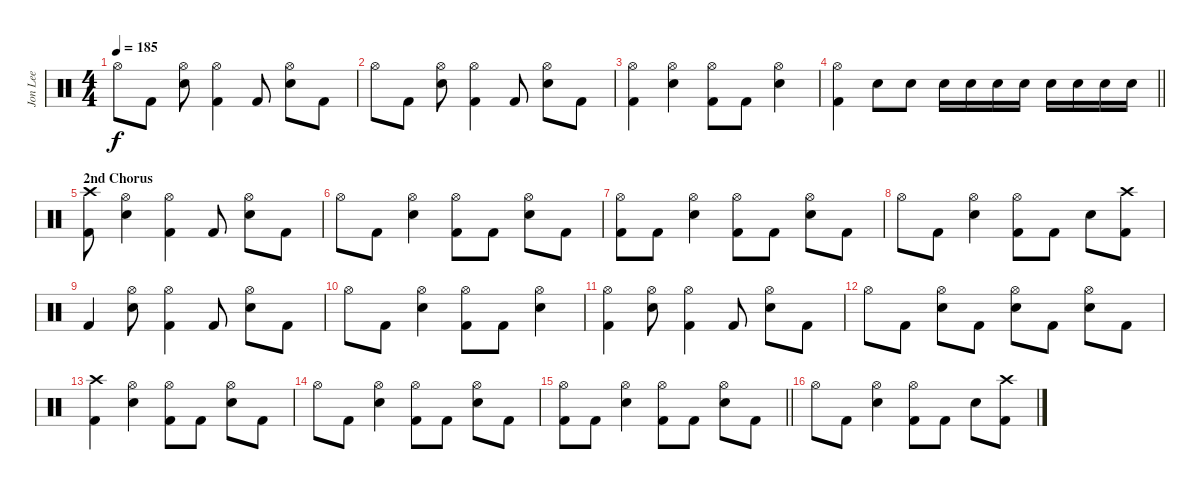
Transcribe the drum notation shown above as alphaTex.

\track ("Jon Lee" "Jon Lee") {instrument percussion bank 10}
\staff {score}
\articulation defaults
\ts (4 4)
\tempo 185
\clef neutral
\ks c "Hi-Hat (open)".8{dy f} "Kick (hit) 2".8
("Snare (hit) 2" "Hi-Hat (open)").8 ("Kick (hit) 2" "Hi-Hat (open)").4 "Kick (hit) 2".8 ("Snare (hit) 2" "Hi-Hat (open)").8 "Kick (hit) 2".8 |
"Hi-Hat (open)".8 "Kick (hit) 2".8 ("Snare (hit) 2" "Hi-Hat (open)").8 ("Kick (hit) 2" "Hi-Hat (open)").4 "Kick (hit) 2".8 ("Snare (hit) 2" "Hi-Hat (open)").8 "Kick (hit) 2".8 |
("Kick (hit) 2" "Hi-Hat (open)").4 ("Snare (hit) 2" "Hi-Hat (open)").4 ("Hi-Hat (open)" "Kick (hit) 2").8 "Kick (hit) 2".8 ("Hi-Hat (open)" "Snare (hit) 2").4 |
\barLineRight lightlight
("Hi-Hat (open)" "Kick (hit) 2").4 "Snare (hit) 2".8 "Snare (hit) 2".8 "Snare (hit) 2".16 "Snare (hit) 2".16 "Snare (hit) 2".16 "Snare (hit) 2".16 "Snare (hit) 2".16 "Snare (hit) 2".16 "Snare (hit) 2".16 "Snare (hit) 2".16 |
\section ("" "2nd Chorus")
("Kick (hit) 2" "Crash high (hit)").8 ("Snare (hit) 2" "Hi-Hat (open)").4 ("Hi-Hat (open)" "Kick (hit) 2").4 "Kick (hit) 2".8 ("Snare (hit) 2" "Hi-Hat (open)").8 "Kick (hit) 2".8 |
"Hi-Hat (open)".8 "Kick (hit) 2".8 ("Snare (hit) 2" "Hi-Hat (open)").4 ("Kick (hit) 2" "Hi-Hat (open)").8 "Kick (hit) 2".8 ("Snare (hit) 2" "Hi-Hat (open)").8 "Kick (hit) 2".8 |
("Hi-Hat (open)" "Kick (hit) 2").8 "Kick (hit) 2".8 ("Snare (hit) 2" "Hi-Hat (open)").4 ("Kick (hit) 2" "Hi-Hat (open)").8 "Kick (hit) 2".8 ("Snare (hit) 2" "Hi-Hat (open)").8 "Kick (hit) 2".8 |
"Hi-Hat (open)".8 "Kick (hit) 2".8 ("Snare (hit) 2" "Hi-Hat (open)").4 ("Kick (hit) 2" "Hi-Hat (open)").8 "Kick (hit) 2".8 "Snare (hit) 2".8 ("Kick (hit) 2" "Crash high (hit)").8 |
"Kick (hit) 2".4 ("Snare (hit) 2" "Hi-Hat (open)").8 ("Kick (hit) 2" "Hi-Hat (open)").4 "Kick (hit) 2".8 ("Snare (hit) 2" "Hi-Hat (open)").8 "Kick (hit) 2".8 |
"Hi-Hat (open)".8 "Kick (hit) 2".8 ("Snare (hit) 2" "Hi-Hat (open)").4 ("Kick (hit) 2" "Hi-Hat (open)").8 "Kick (hit) 2".8 ("Snare (hit) 2" "Hi-Hat (open)").4 |
("Hi-Hat (open)" "Kick (hit) 2").4 ("Snare (hit) 2" "Hi-Hat (open)").8 ("Kick (hit) 2" "Hi-Hat (open)").4 "Kick (hit) 2".8 ("Snare (hit) 2" "Hi-Hat (open)").8 "Kick (hit) 2".8 |
"Hi-Hat (open)".8 "Kick (hit) 2".8 ("Snare (hit) 2" "Hi-Hat (open)").8 "Kick (hit) 2".8 ("Snare (hit) 2" "Hi-Hat (open)").8 "Kick (hit) 2".8 ("Snare (hit) 2" "Hi-Hat (open)").8 "Kick (hit) 2".8 |
("Kick (hit) 2" "Crash high (hit)").4 ("Snare (hit) 2" "Hi-Hat (open)").4 ("Hi-Hat (open)" "Kick (hit) 2").8 "Kick (hit) 2".8 ("Snare (hit) 2" "Hi-Hat (open)").8 "Kick (hit) 2".8 |
"Hi-Hat (open)".8 "Kick (hit) 2".8 ("Snare (hit) 2" "Hi-Hat (open)").4 ("Kick (hit) 2" "Hi-Hat (open)").8 "Kick (hit) 2".8 ("Snare (hit) 2" "Hi-Hat (open)").8 "Kick (hit) 2".8 |
\barLineRight lightlight
("Hi-Hat (open)" "Kick (hit) 2").8 "Kick (hit) 2".8 ("Snare (hit) 2" "Hi-Hat (open)").4 ("Kick (hit) 2" "Hi-Hat (open)").8 "Kick (hit) 2".8 ("Snare (hit) 2" "Hi-Hat (open)").8 "Kick (hit) 2".8 |
"Hi-Hat (open)".8 "Kick (hit) 2".8 ("Snare (hit) 2" "Hi-Hat (open)").4 ("Kick (hit) 2" "Hi-Hat (open)").8 "Kick (hit) 2".8 "Snare (hit) 2".8 ("Kick (hit) 2" "Crash high (hit)").8
